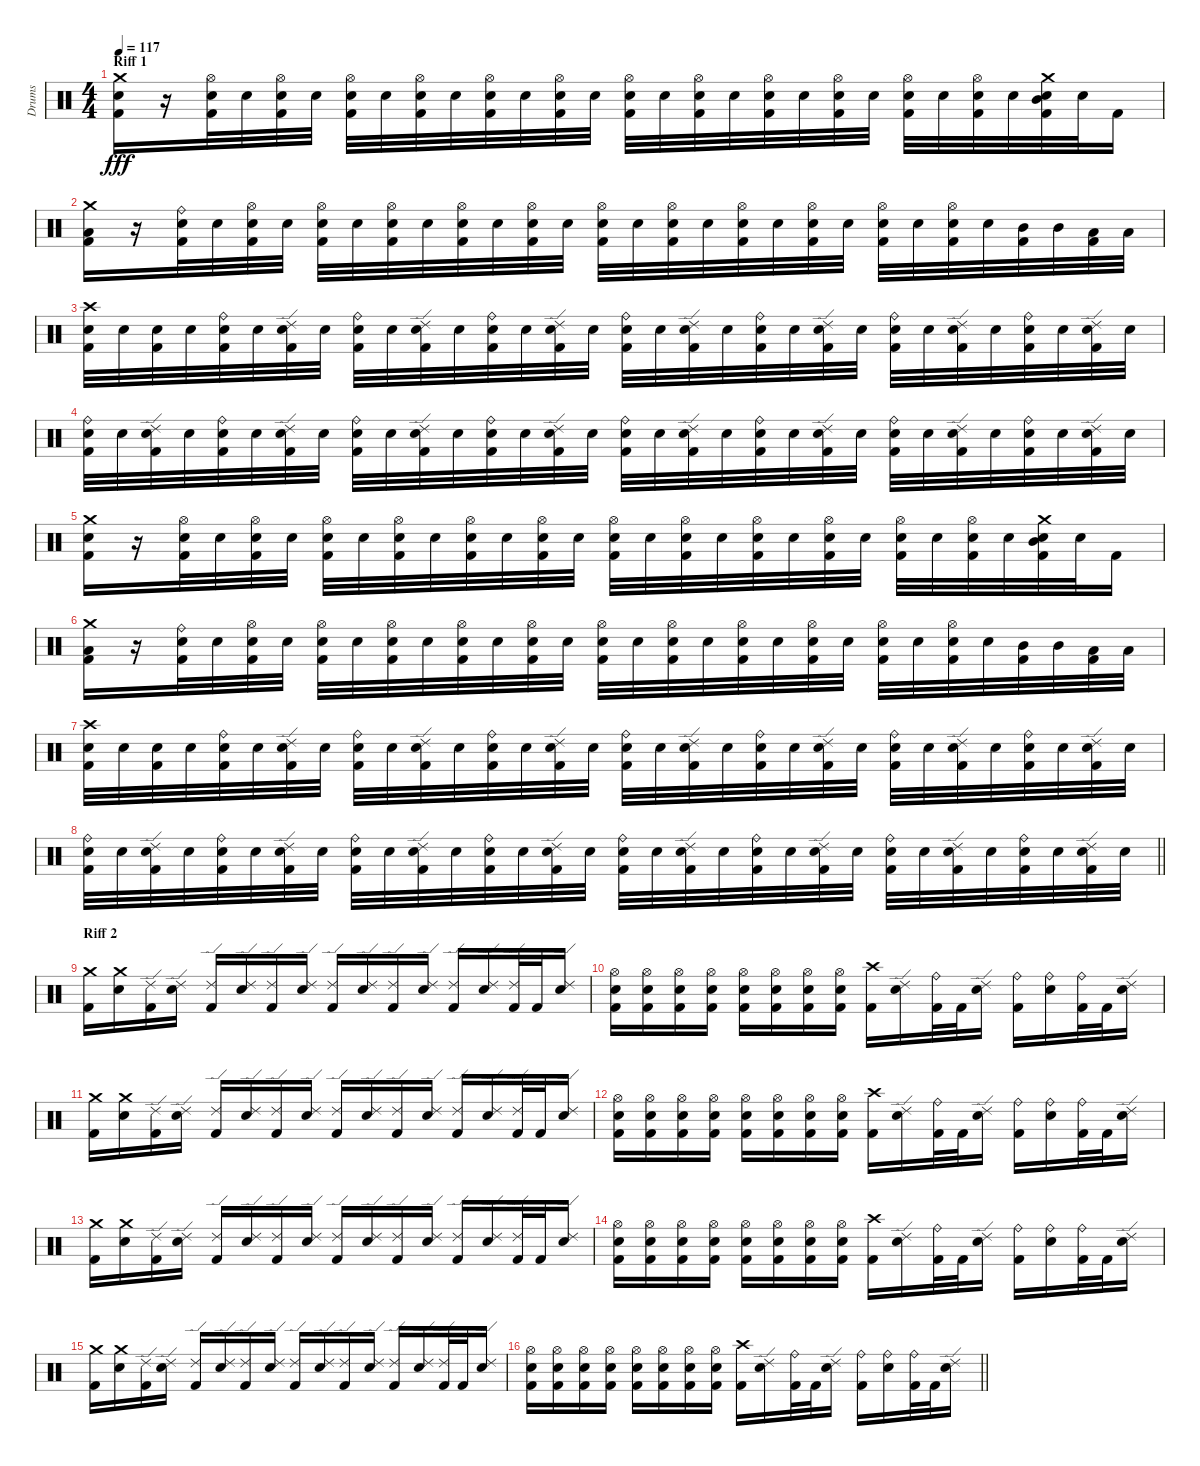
\track ("Drums" "Drums") {instrument percussion}
\staff {score}
\articulation defaults
\ts (4 4)
\section ("" "Riff 1")
\tempo 117
\clef neutral
\ks c
("Kick (hit) 2" "Snare (hit) 2" "Crash medium (hit)").16{dy fff} r.16 ("Kick (hit) 2" "Snare (hit) 2" "Hi-Hat (open)").32 "Snare (hit) 2".32 ("Kick (hit) 2" "Snare (hit) 2" "Hi-Hat (open)").32 "Snare (hit) 2".32 ("Kick (hit) 2" "Snare (hit) 2" "Hi-Hat (open)").32 "Snare (hit) 2".32 ("Kick (hit) 2" "Snare (hit) 2" "Hi-Hat (open)").32 "Snare (hit) 2".32 ("Kick (hit) 2" "Snare (hit) 2" "Hi-Hat (open)").32 "Snare (hit) 2".32 ("Kick (hit) 2" "Snare (hit) 2" "Hi-Hat (open)").32 "Snare (hit) 2".32 ("Kick (hit) 2" "Snare (hit) 2" "Hi-Hat (open)").32 "Snare (hit) 2".32 ("Kick (hit) 2" "Snare (hit) 2" "Hi-Hat (open)").32 "Snare (hit) 2".32 ("Kick (hit) 2" "Snare (hit) 2" "Hi-Hat (open)").32 "Snare (hit) 2".32 ("Kick (hit) 2" "Snare (hit) 2" "Hi-Hat (open)").32 "Snare (hit) 2".32 ("Kick (hit) 2" "Snare (hit) 2" "Hi-Hat (open)").32 "Snare (hit) 2".32 ("Kick (hit) 2" "Snare (hit) 2" "Hi-Hat (open)").32 "Snare (hit) 2".32 ("Kick (hit) 2" "Snare (hit) 2" "Mid Tom (hit)" "Crash medium (hit)").32 "Snare (hit) 2".32 "Kick (hit) 2".16 |
("Kick (hit) 2" "Low Tom (hit)" "Crash medium (hit)").16 r.16 ("Kick (hit) 2" "Snare (hit) 2" "Ride (bell)").32 "Snare (hit) 2".32 ("Kick (hit) 2" "Snare (hit) 2" "Hi-Hat (open)").32 "Snare (hit) 2".32 ("Kick (hit) 2" "Snare (hit) 2" "Hi-Hat (open)").32 "Snare (hit) 2".32 ("Kick (hit) 2" "Snare (hit) 2" "Hi-Hat (open)").32 "Snare (hit) 2".32 ("Kick (hit) 2" "Snare (hit) 2" "Hi-Hat (open)").32 "Snare (hit) 2".32 ("Kick (hit) 2" "Snare (hit) 2" "Hi-Hat (open)").32 "Snare (hit) 2".32 ("Kick (hit) 2" "Snare (hit) 2" "Hi-Hat (open)").32 "Snare (hit) 2".32 ("Kick (hit) 2" "Snare (hit) 2" "Hi-Hat (open)").32 "Snare (hit) 2".32 ("Kick (hit) 2" "Snare (hit) 2" "Hi-Hat (open)").32 "Snare (hit) 2".32 ("Kick (hit) 2" "Snare (hit) 2" "Hi-Hat (open)").32 "Snare (hit) 2".32 ("Kick (hit) 2" "Snare (hit) 2" "Hi-Hat (open)").32 "Snare (hit) 2".32 ("Kick (hit) 2" "Snare (hit) 2" "Hi-Hat (open)").32 "Snare (hit) 2".32 ("Kick (hit) 2" "Mid Tom (hit)").32 "Mid Tom (hit)".32 ("Kick (hit) 2" "Low Tom (hit)").32 "Low Tom (hit)".32 |
("Kick (hit) 2" "Snare (hit) 2" "Crash high (hit)").32 "Snare (hit) 2".32 ("Kick (hit) 2" "Snare (hit) 2").32 "Snare (hit) 2".32 ("Kick (hit) 2" "Snare (hit) 2" "Ride (bell)").32 "Snare (hit) 2".32 ("Kick (hit) 2" "Snare (hit) 2" "Ride (edge) 2").32 "Snare (hit) 2".32 ("Kick (hit) 2" "Snare (hit) 2" "Ride (bell)").32 "Snare (hit) 2".32 ("Kick (hit) 2" "Snare (hit) 2" "Ride (edge) 2").32 "Snare (hit) 2".32 ("Kick (hit) 2" "Snare (hit) 2" "Ride (bell)").32 "Snare (hit) 2".32 ("Kick (hit) 2" "Snare (hit) 2" "Ride (edge) 2").32 "Snare (hit) 2".32 ("Kick (hit) 2" "Snare (hit) 2" "Ride (bell)").32 "Snare (hit) 2".32 ("Kick (hit) 2" "Snare (hit) 2" "Ride (edge) 2").32 "Snare (hit) 2".32 ("Kick (hit) 2" "Snare (hit) 2" "Ride (bell)").32 "Snare (hit) 2".32 ("Kick (hit) 2" "Snare (hit) 2" "Ride (edge) 2").32 "Snare (hit) 2".32 ("Kick (hit) 2" "Snare (hit) 2" "Ride (bell)").32 "Snare (hit) 2".32 ("Kick (hit) 2" "Snare (hit) 2" "Ride (edge) 2").32 "Snare (hit) 2".32 ("Kick (hit) 2" "Snare (hit) 2" "Ride (bell)").32 "Snare (hit) 2".32 ("Kick (hit) 2" "Snare (hit) 2" "Ride (edge) 2").32 "Snare (hit) 2".32 |
("Kick (hit) 2" "Snare (hit) 2" "Ride (bell)").32 "Snare (hit) 2".32 ("Kick (hit) 2" "Snare (hit) 2" "Ride (edge) 2").32 "Snare (hit) 2".32 ("Kick (hit) 2" "Snare (hit) 2" "Ride (bell)").32 "Snare (hit) 2".32 ("Kick (hit) 2" "Snare (hit) 2" "Ride (edge) 2").32 "Snare (hit) 2".32 ("Kick (hit) 2" "Snare (hit) 2" "Ride (bell)").32 "Snare (hit) 2".32 ("Kick (hit) 2" "Snare (hit) 2" "Ride (edge) 2").32 "Snare (hit) 2".32 ("Kick (hit) 2" "Snare (hit) 2" "Ride (bell)").32 "Snare (hit) 2".32 ("Kick (hit) 2" "Snare (hit) 2" "Ride (edge) 2").32 "Snare (hit) 2".32 ("Kick (hit) 2" "Snare (hit) 2" "Ride (bell)").32 "Snare (hit) 2".32 ("Kick (hit) 2" "Snare (hit) 2" "Ride (edge) 2").32 "Snare (hit) 2".32 ("Kick (hit) 2" "Snare (hit) 2" "Ride (bell)").32 "Snare (hit) 2".32 ("Kick (hit) 2" "Snare (hit) 2" "Ride (edge) 2").32 "Snare (hit) 2".32 ("Kick (hit) 2" "Snare (hit) 2" "Ride (bell)").32 "Snare (hit) 2".32 ("Kick (hit) 2" "Snare (hit) 2" "Ride (edge) 2").32 "Snare (hit) 2".32 ("Kick (hit) 2" "Snare (hit) 2" "Ride (bell)").32 "Snare (hit) 2".32 ("Kick (hit) 2" "Snare (hit) 2" "Ride (edge) 2").32 "Snare (hit) 2".32 |
("Kick (hit) 2" "Snare (hit) 2" "Crash medium (hit)").16 r.16 ("Kick (hit) 2" "Snare (hit) 2" "Hi-Hat (open)").32 "Snare (hit) 2".32 ("Kick (hit) 2" "Snare (hit) 2" "Hi-Hat (open)").32 "Snare (hit) 2".32 ("Kick (hit) 2" "Snare (hit) 2" "Hi-Hat (open)").32 "Snare (hit) 2".32 ("Kick (hit) 2" "Snare (hit) 2" "Hi-Hat (open)").32 "Snare (hit) 2".32 ("Kick (hit) 2" "Snare (hit) 2" "Hi-Hat (open)").32 "Snare (hit) 2".32 ("Kick (hit) 2" "Snare (hit) 2" "Hi-Hat (open)").32 "Snare (hit) 2".32 ("Kick (hit) 2" "Snare (hit) 2" "Hi-Hat (open)").32 "Snare (hit) 2".32 ("Kick (hit) 2" "Snare (hit) 2" "Hi-Hat (open)").32 "Snare (hit) 2".32 ("Kick (hit) 2" "Snare (hit) 2" "Hi-Hat (open)").32 "Snare (hit) 2".32 ("Kick (hit) 2" "Snare (hit) 2" "Hi-Hat (open)").32 "Snare (hit) 2".32 ("Kick (hit) 2" "Snare (hit) 2" "Hi-Hat (open)").32 "Snare (hit) 2".32 ("Kick (hit) 2" "Snare (hit) 2" "Hi-Hat (open)").32 "Snare (hit) 2".32 ("Kick (hit) 2" "Snare (hit) 2" "Mid Tom (hit)" "Crash medium (hit)").32 "Snare (hit) 2".32 "Kick (hit) 2".16 |
("Kick (hit) 2" "Low Tom (hit)" "Crash medium (hit)").16 r.16 ("Kick (hit) 2" "Snare (hit) 2" "Ride (bell)").32 "Snare (hit) 2".32 ("Kick (hit) 2" "Snare (hit) 2" "Hi-Hat (open)").32 "Snare (hit) 2".32 ("Kick (hit) 2" "Snare (hit) 2" "Hi-Hat (open)").32 "Snare (hit) 2".32 ("Kick (hit) 2" "Snare (hit) 2" "Hi-Hat (open)").32 "Snare (hit) 2".32 ("Kick (hit) 2" "Snare (hit) 2" "Hi-Hat (open)").32 "Snare (hit) 2".32 ("Kick (hit) 2" "Snare (hit) 2" "Hi-Hat (open)").32 "Snare (hit) 2".32 ("Kick (hit) 2" "Snare (hit) 2" "Hi-Hat (open)").32 "Snare (hit) 2".32 ("Kick (hit) 2" "Snare (hit) 2" "Hi-Hat (open)").32 "Snare (hit) 2".32 ("Kick (hit) 2" "Snare (hit) 2" "Hi-Hat (open)").32 "Snare (hit) 2".32 ("Kick (hit) 2" "Snare (hit) 2" "Hi-Hat (open)").32 "Snare (hit) 2".32 ("Kick (hit) 2" "Snare (hit) 2" "Hi-Hat (open)").32 "Snare (hit) 2".32 ("Kick (hit) 2" "Snare (hit) 2" "Hi-Hat (open)").32 "Snare (hit) 2".32 ("Kick (hit) 2" "Mid Tom (hit)").32 "Mid Tom (hit)".32 ("Kick (hit) 2" "Low Tom (hit)").32 "Low Tom (hit)".32 |
("Kick (hit) 2" "Snare (hit) 2" "Crash high (hit)").32 "Snare (hit) 2".32 ("Kick (hit) 2" "Snare (hit) 2").32 "Snare (hit) 2".32 ("Kick (hit) 2" "Snare (hit) 2" "Ride (bell)").32 "Snare (hit) 2".32 ("Kick (hit) 2" "Snare (hit) 2" "Ride (edge) 2").32 "Snare (hit) 2".32 ("Kick (hit) 2" "Snare (hit) 2" "Ride (bell)").32 "Snare (hit) 2".32 ("Kick (hit) 2" "Snare (hit) 2" "Ride (edge) 2").32 "Snare (hit) 2".32 ("Kick (hit) 2" "Snare (hit) 2" "Ride (bell)").32 "Snare (hit) 2".32 ("Kick (hit) 2" "Snare (hit) 2" "Ride (edge) 2").32 "Snare (hit) 2".32 ("Kick (hit) 2" "Snare (hit) 2" "Ride (bell)").32 "Snare (hit) 2".32 ("Kick (hit) 2" "Snare (hit) 2" "Ride (edge) 2").32 "Snare (hit) 2".32 ("Kick (hit) 2" "Snare (hit) 2" "Ride (bell)").32 "Snare (hit) 2".32 ("Kick (hit) 2" "Snare (hit) 2" "Ride (edge) 2").32 "Snare (hit) 2".32 ("Kick (hit) 2" "Snare (hit) 2" "Ride (bell)").32 "Snare (hit) 2".32 ("Kick (hit) 2" "Snare (hit) 2" "Ride (edge) 2").32 "Snare (hit) 2".32 ("Kick (hit) 2" "Snare (hit) 2" "Ride (bell)").32 "Snare (hit) 2".32 ("Kick (hit) 2" "Snare (hit) 2" "Ride (edge) 2").32 "Snare (hit) 2".32 |
\barLineRight lightlight
("Kick (hit) 2" "Snare (hit) 2" "Ride (bell)").32 "Snare (hit) 2".32 ("Kick (hit) 2" "Snare (hit) 2" "Ride (edge) 2").32 "Snare (hit) 2".32 ("Kick (hit) 2" "Snare (hit) 2" "Ride (bell)").32 "Snare (hit) 2".32 ("Kick (hit) 2" "Snare (hit) 2" "Ride (edge) 2").32 "Snare (hit) 2".32 ("Kick (hit) 2" "Snare (hit) 2" "Ride (bell)").32 "Snare (hit) 2".32 ("Kick (hit) 2" "Snare (hit) 2" "Ride (edge) 2").32 "Snare (hit) 2".32 ("Kick (hit) 2" "Snare (hit) 2" "Ride (bell)").32 "Snare (hit) 2".32 ("Kick (hit) 2" "Snare (hit) 2" "Ride (edge) 2").32 "Snare (hit) 2".32 ("Kick (hit) 2" "Snare (hit) 2" "Ride (bell)").32 "Snare (hit) 2".32 ("Kick (hit) 2" "Snare (hit) 2" "Ride (edge) 2").32 "Snare (hit) 2".32 ("Kick (hit) 2" "Snare (hit) 2" "Ride (bell)").32 "Snare (hit) 2".32 ("Kick (hit) 2" "Snare (hit) 2" "Ride (edge) 2").32 "Snare (hit) 2".32 ("Kick (hit) 2" "Snare (hit) 2" "Ride (bell)").32 "Snare (hit) 2".32 ("Kick (hit) 2" "Snare (hit) 2" "Ride (edge) 2").32 "Snare (hit) 2".32 ("Kick (hit) 2" "Snare (hit) 2" "Ride (bell)").32 "Snare (hit) 2".32 ("Kick (hit) 2" "Snare (hit) 2" "Ride (edge) 2").32 "Snare (hit) 2".32 |
\section ("" "Riff 2")
("Kick (hit) 2" "Crash medium (hit)").16 ("Snare (hit) 2" "Crash medium (hit)").16 ("Kick (hit) 2" "Ride (edge) 2").16 ("Snare (hit) 2" "Ride (edge) 2").16 ("Kick (hit) 2" "Ride (edge) 2").16 ("Snare (hit) 2" "Ride (edge) 2").16 ("Kick (hit) 2" "Ride (edge) 2").16 ("Snare (hit) 2" "Ride (edge) 2").16 ("Kick (hit) 2" "Ride (edge) 2").16 ("Snare (hit) 2" "Ride (edge) 2").16 ("Kick (hit) 2" "Ride (edge) 2").16 ("Snare (hit) 2" "Ride (edge) 2").16 ("Kick (hit) 2" "Ride (edge) 2").16 ("Snare (hit) 2" "Ride (edge) 2").16 ("Kick (hit) 2" "Ride (edge) 2").32 "Kick (hit) 2".32 ("Snare (hit) 2" "Ride (edge) 2").16 |
("Kick (hit) 2" "Snare (hit) 2" "Hi-Hat (open)").16 ("Kick (hit) 2" "Snare (hit) 2" "Hi-Hat (open)").16 ("Kick (hit) 2" "Snare (hit) 2" "Hi-Hat (open)").16 ("Kick (hit) 2" "Snare (hit) 2" "Hi-Hat (open)").16 ("Kick (hit) 2" "Snare (hit) 2" "Hi-Hat (open)").16 ("Kick (hit) 2" "Snare (hit) 2" "Hi-Hat (open)").16 ("Kick (hit) 2" "Snare (hit) 2" "Hi-Hat (open)").16 ("Kick (hit) 2" "Snare (hit) 2" "Hi-Hat (open)").16 ("Kick (hit) 2" "Crash high (hit)").16 ("Snare (hit) 2" "Ride (edge) 2").16 ("Kick (hit) 2" "Ride (bell)").32 "Kick (hit) 2".32 ("Snare (hit) 2" "Ride (edge) 2").16 ("Kick (hit) 2" "Ride (bell)").16 ("Snare (hit) 2" "Ride (bell)").16 ("Kick (hit) 2" "Ride (bell)").32 "Kick (hit) 2".32 ("Snare (hit) 2" "Ride (edge) 2").16 |
("Kick (hit) 2" "Crash medium (hit)").16 ("Snare (hit) 2" "Crash medium (hit)").16 ("Kick (hit) 2" "Ride (edge) 2").16 ("Snare (hit) 2" "Ride (edge) 2").16 ("Kick (hit) 2" "Ride (edge) 2").16 ("Snare (hit) 2" "Ride (edge) 2").16 ("Kick (hit) 2" "Ride (edge) 2").16 ("Snare (hit) 2" "Ride (edge) 2").16 ("Kick (hit) 2" "Ride (edge) 2").16 ("Snare (hit) 2" "Ride (edge) 2").16 ("Kick (hit) 2" "Ride (edge) 2").16 ("Snare (hit) 2" "Ride (edge) 2").16 ("Kick (hit) 2" "Ride (edge) 2").16 ("Snare (hit) 2" "Ride (edge) 2").16 ("Kick (hit) 2" "Ride (edge) 2").32 "Kick (hit) 2".32 ("Snare (hit) 2" "Ride (edge) 2").16 |
("Kick (hit) 2" "Snare (hit) 2" "Hi-Hat (open)").16 ("Kick (hit) 2" "Snare (hit) 2" "Hi-Hat (open)").16 ("Kick (hit) 2" "Snare (hit) 2" "Hi-Hat (open)").16 ("Kick (hit) 2" "Snare (hit) 2" "Hi-Hat (open)").16 ("Kick (hit) 2" "Snare (hit) 2" "Hi-Hat (open)").16 ("Kick (hit) 2" "Snare (hit) 2" "Hi-Hat (open)").16 ("Kick (hit) 2" "Snare (hit) 2" "Hi-Hat (open)").16 ("Kick (hit) 2" "Snare (hit) 2" "Hi-Hat (open)").16 ("Kick (hit) 2" "Crash high (hit)").16 ("Snare (hit) 2" "Ride (edge) 2").16 ("Kick (hit) 2" "Ride (bell)").32 "Kick (hit) 2".32 ("Snare (hit) 2" "Ride (edge) 2").16 ("Kick (hit) 2" "Ride (bell)").16 ("Snare (hit) 2" "Ride (bell)").16 ("Kick (hit) 2" "Ride (bell)").32 "Kick (hit) 2".32 ("Snare (hit) 2" "Ride (edge) 2").16 |
("Kick (hit) 2" "Crash medium (hit)").16 ("Snare (hit) 2" "Crash medium (hit)").16 ("Kick (hit) 2" "Ride (edge) 2").16 ("Snare (hit) 2" "Ride (edge) 2").16 ("Kick (hit) 2" "Ride (edge) 2").16 ("Snare (hit) 2" "Ride (edge) 2").16 ("Kick (hit) 2" "Ride (edge) 2").16 ("Snare (hit) 2" "Ride (edge) 2").16 ("Kick (hit) 2" "Ride (edge) 2").16 ("Snare (hit) 2" "Ride (edge) 2").16 ("Kick (hit) 2" "Ride (edge) 2").16 ("Snare (hit) 2" "Ride (edge) 2").16 ("Kick (hit) 2" "Ride (edge) 2").16 ("Snare (hit) 2" "Ride (edge) 2").16 ("Kick (hit) 2" "Ride (edge) 2").32 "Kick (hit) 2".32 ("Snare (hit) 2" "Ride (edge) 2").16 |
("Kick (hit) 2" "Snare (hit) 2" "Hi-Hat (open)").16 ("Kick (hit) 2" "Snare (hit) 2" "Hi-Hat (open)").16 ("Kick (hit) 2" "Snare (hit) 2" "Hi-Hat (open)").16 ("Kick (hit) 2" "Snare (hit) 2" "Hi-Hat (open)").16 ("Kick (hit) 2" "Snare (hit) 2" "Hi-Hat (open)").16 ("Kick (hit) 2" "Snare (hit) 2" "Hi-Hat (open)").16 ("Kick (hit) 2" "Snare (hit) 2" "Hi-Hat (open)").16 ("Kick (hit) 2" "Snare (hit) 2" "Hi-Hat (open)").16 ("Kick (hit) 2" "Crash high (hit)").16 ("Snare (hit) 2" "Ride (edge) 2").16 ("Kick (hit) 2" "Ride (bell)").32 "Kick (hit) 2".32 ("Snare (hit) 2" "Ride (edge) 2").16 ("Kick (hit) 2" "Ride (bell)").16 ("Snare (hit) 2" "Ride (bell)").16 ("Kick (hit) 2" "Ride (bell)").32 "Kick (hit) 2".32 ("Snare (hit) 2" "Ride (edge) 2").16 |
("Kick (hit) 2" "Crash medium (hit)").16 ("Snare (hit) 2" "Crash medium (hit)").16 ("Kick (hit) 2" "Ride (edge) 2").16 ("Snare (hit) 2" "Ride (edge) 2").16 ("Kick (hit) 2" "Ride (edge) 2").16 ("Snare (hit) 2" "Ride (edge) 2").16 ("Kick (hit) 2" "Ride (edge) 2").16 ("Snare (hit) 2" "Ride (edge) 2").16 ("Kick (hit) 2" "Ride (edge) 2").16 ("Snare (hit) 2" "Ride (edge) 2").16 ("Kick (hit) 2" "Ride (edge) 2").16 ("Snare (hit) 2" "Ride (edge) 2").16 ("Kick (hit) 2" "Ride (edge) 2").16 ("Snare (hit) 2" "Ride (edge) 2").16 ("Kick (hit) 2" "Ride (edge) 2").32 "Kick (hit) 2".32 ("Snare (hit) 2" "Ride (edge) 2").16 |
\barLineRight lightlight
("Kick (hit) 2" "Snare (hit) 2" "Hi-Hat (open)").16 ("Kick (hit) 2" "Snare (hit) 2" "Hi-Hat (open)").16 ("Kick (hit) 2" "Snare (hit) 2" "Hi-Hat (open)").16 ("Kick (hit) 2" "Snare (hit) 2" "Hi-Hat (open)").16 ("Kick (hit) 2" "Snare (hit) 2" "Hi-Hat (open)").16 ("Kick (hit) 2" "Snare (hit) 2" "Hi-Hat (open)").16 ("Kick (hit) 2" "Snare (hit) 2" "Hi-Hat (open)").16 ("Kick (hit) 2" "Snare (hit) 2" "Hi-Hat (open)").16 ("Kick (hit) 2" "Crash high (hit)").16 ("Snare (hit) 2" "Ride (edge) 2").16 ("Kick (hit) 2" "Ride (bell)").32 "Kick (hit) 2".32 ("Snare (hit) 2" "Ride (edge) 2").16 ("Kick (hit) 2" "Ride (bell)").16 ("Snare (hit) 2" "Ride (bell)").16 ("Kick (hit) 2" "Ride (bell)").32 "Kick (hit) 2".32 ("Snare (hit) 2" "Ride (edge) 2").16
